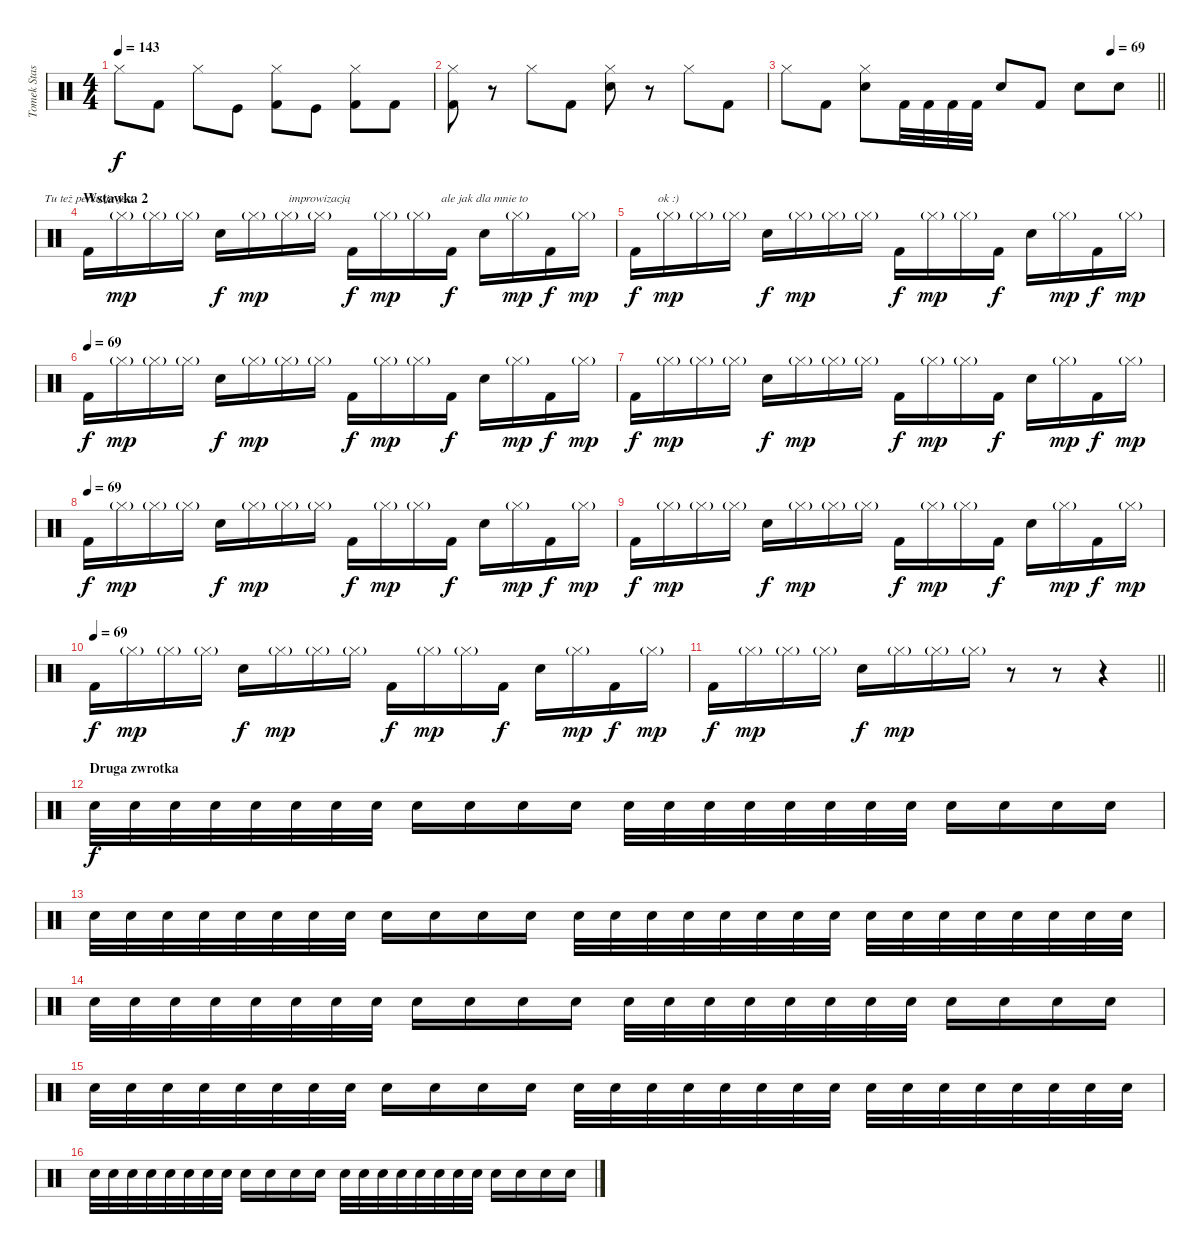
\track ("Tomek Stasiak" "Tomek Stas") {instrument percussion}
\staff {score}
\articulation defaults
\chord ("Tu też perkusja jest") {firstfret 20}
\chord ("improwizacją") {firstfret 20}
\chord ("ale jak dla mnie to ") {firstfret 20}
\chord ("ok :)") {firstfret 20}
\ts (4 4)
\tempo 143
\clef neutral
\ks c "Hi-Hat (closed)".8{dy f} "Kick (hit) 2".8 "Hi-Hat (closed)".8 "Kick (hit)".8
("Hi-Hat (closed)" "Kick (hit) 2").8 "Kick (hit)".8 ("Hi-Hat (closed)" "Kick (hit) 2").8 "Kick (hit) 2".8 |
("Hi-Hat (closed)" "Kick (hit) 2").8 r.8 "Hi-Hat (closed)".8 "Kick (hit) 2".8 ("Hi-Hat (closed)" "Snare (hit) 2").8 r.8 "Hi-Hat (closed)".8 "Kick (hit) 2".8 |
\tempo (69 0.875)
\barLineRight lightlight "Hi-Hat (closed)".8 "Kick (hit) 2".8
("Hi-Hat (closed)" "Snare (hit) 2").8 "Kick (hit) 2".32 "Kick (hit) 2".32 "Kick (hit) 2".32 "Kick (hit) 2".32 "Snare (hit) 2".8 "Kick (hit) 2".8 "Snare (hit) 2".8 "Snare (hit) 2".8 |
\section ("" "Wstawka 2")
"Kick (hit) 2".16{ch "Tu też perkusja jest"} "Hi-Hat (closed)"{g}.16{dy mp} "Hi-Hat (closed)"{g}.16 "Hi-Hat (closed)"{g}.16 "Snare (hit) 2".16{dy f} "Hi-Hat (closed)"{g}.16{dy mp} "Hi-Hat (closed)"{g}.16 "Hi-Hat (closed)"{g}.16{ch "improwizacją"} "Kick (hit) 2".16{dy f} "Hi-Hat (closed)"{g}.16{dy mp} "Hi-Hat (closed)"{g}.16 "Kick (hit) 2".16{dy f} "Snare (hit) 2".16{ch "ale jak dla mnie to "} "Hi-Hat (closed)"{g}.16{dy mp} "Kick (hit) 2".16{dy f} "Hi-Hat (closed)"{g}.16{dy mp} |
"Kick (hit) 2".16{dy f} "Hi-Hat (closed)"{g}.16{ch "ok :)" dy mp} "Hi-Hat (closed)"{g}.16 "Hi-Hat (closed)"{g}.16 "Snare (hit) 2".16{dy f} "Hi-Hat (closed)"{g}.16{dy mp} "Hi-Hat (closed)"{g}.16 "Hi-Hat (closed)"{g}.16 "Kick (hit) 2".16{dy f} "Hi-Hat (closed)"{g}.16{dy mp} "Hi-Hat (closed)"{g}.16 "Kick (hit) 2".16{dy f} "Snare (hit) 2".16 "Hi-Hat (closed)"{g}.16{dy mp} "Kick (hit) 2".16{dy f} "Hi-Hat (closed)"{g}.16{dy mp} |
\tempo (69)
"Kick (hit) 2".16{dy f} "Hi-Hat (closed)"{g}.16{dy mp} "Hi-Hat (closed)"{g}.16 "Hi-Hat (closed)"{g}.16 "Snare (hit) 2".16{dy f} "Hi-Hat (closed)"{g}.16{dy mp} "Hi-Hat (closed)"{g}.16 "Hi-Hat (closed)"{g}.16 "Kick (hit) 2".16{dy f} "Hi-Hat (closed)"{g}.16{dy mp} "Hi-Hat (closed)"{g}.16 "Kick (hit) 2".16{dy f} "Snare (hit) 2".16 "Hi-Hat (closed)"{g}.16{dy mp} "Kick (hit) 2".16{dy f} "Hi-Hat (closed)"{g}.16{dy mp} |
"Kick (hit) 2".16{dy f} "Hi-Hat (closed)"{g}.16{dy mp} "Hi-Hat (closed)"{g}.16 "Hi-Hat (closed)"{g}.16 "Snare (hit) 2".16{dy f} "Hi-Hat (closed)"{g}.16{dy mp} "Hi-Hat (closed)"{g}.16 "Hi-Hat (closed)"{g}.16 "Kick (hit) 2".16{dy f} "Hi-Hat (closed)"{g}.16{dy mp} "Hi-Hat (closed)"{g}.16 "Kick (hit) 2".16{dy f} "Snare (hit) 2".16 "Hi-Hat (closed)"{g}.16{dy mp} "Kick (hit) 2".16{dy f} "Hi-Hat (closed)"{g}.16{dy mp} |
\tempo (69)
"Kick (hit) 2".16{dy f} "Hi-Hat (closed)"{g}.16{dy mp} "Hi-Hat (closed)"{g}.16 "Hi-Hat (closed)"{g}.16 "Snare (hit) 2".16{dy f} "Hi-Hat (closed)"{g}.16{dy mp} "Hi-Hat (closed)"{g}.16 "Hi-Hat (closed)"{g}.16 "Kick (hit) 2".16{dy f} "Hi-Hat (closed)"{g}.16{dy mp} "Hi-Hat (closed)"{g}.16 "Kick (hit) 2".16{dy f} "Snare (hit) 2".16 "Hi-Hat (closed)"{g}.16{dy mp} "Kick (hit) 2".16{dy f} "Hi-Hat (closed)"{g}.16{dy mp} |
"Kick (hit) 2".16{dy f} "Hi-Hat (closed)"{g}.16{dy mp} "Hi-Hat (closed)"{g}.16 "Hi-Hat (closed)"{g}.16 "Snare (hit) 2".16{dy f} "Hi-Hat (closed)"{g}.16{dy mp} "Hi-Hat (closed)"{g}.16 "Hi-Hat (closed)"{g}.16 "Kick (hit) 2".16{dy f} "Hi-Hat (closed)"{g}.16{dy mp} "Hi-Hat (closed)"{g}.16 "Kick (hit) 2".16{dy f} "Snare (hit) 2".16 "Hi-Hat (closed)"{g}.16{dy mp} "Kick (hit) 2".16{dy f} "Hi-Hat (closed)"{g}.16{dy mp} |
\tempo (69)
"Kick (hit) 2".16{dy f} "Hi-Hat (closed)"{g}.16{dy mp} "Hi-Hat (closed)"{g}.16 "Hi-Hat (closed)"{g}.16 "Snare (hit) 2".16{dy f} "Hi-Hat (closed)"{g}.16{dy mp} "Hi-Hat (closed)"{g}.16 "Hi-Hat (closed)"{g}.16 "Kick (hit) 2".16{dy f} "Hi-Hat (closed)"{g}.16{dy mp} "Hi-Hat (closed)"{g}.16 "Kick (hit) 2".16{dy f} "Snare (hit) 2".16 "Hi-Hat (closed)"{g}.16{dy mp} "Kick (hit) 2".16{dy f} "Hi-Hat (closed)"{g}.16{dy mp} |
\barLineRight lightlight "Kick (hit) 2".16{dy f} "Hi-Hat (closed)"{g}.16{dy mp} "Hi-Hat (closed)"{g}.16 "Hi-Hat (closed)"{g}.16 "Snare (hit) 2".16{dy f} "Hi-Hat (closed)"{g}.16{dy mp} "Hi-Hat (closed)"{g}.16 "Hi-Hat (closed)"{g}.16
r.8 r.8 r.4 |
\section ("" "Druga zwrotka")
"Snare (hit) 2".32{dy f volume 10} "Snare (hit) 2".32{volume 7} "Snare (hit) 2".32 "Snare (hit) 2".32 "Snare (hit) 2".32 "Snare (hit) 2".32 "Snare (hit) 2".32 "Snare (hit) 2".32 "Snare (hit) 2".16 "Snare (hit) 2".16 "Snare (hit) 2".16 "Snare (hit) 2".16 "Snare (hit) 2".32{volume 10} "Snare (hit) 2".32{volume 7} "Snare (hit) 2".32 "Snare (hit) 2".32 "Snare (hit) 2".32 "Snare (hit) 2".32 "Snare (hit) 2".32 "Snare (hit) 2".32 "Snare (hit) 2".16 "Snare (hit) 2".16 "Snare (hit) 2".16 "Snare (hit) 2".16 |
"Snare (hit) 2".32{volume 10} "Snare (hit) 2".32{volume 7} "Snare (hit) 2".32 "Snare (hit) 2".32 "Snare (hit) 2".32 "Snare (hit) 2".32 "Snare (hit) 2".32 "Snare (hit) 2".32 "Snare (hit) 2".16 "Snare (hit) 2".16 "Snare (hit) 2".16 "Snare (hit) 2".16 "Snare (hit) 2".32{volume 10} "Snare (hit) 2".32{volume 7} "Snare (hit) 2".32 "Snare (hit) 2".32 "Snare (hit) 2".32 "Snare (hit) 2".32 "Snare (hit) 2".32 "Snare (hit) 2".32 "Snare (hit) 2".32{volume 10} "Snare (hit) 2".32{volume 7} "Snare (hit) 2".32 "Snare (hit) 2".32 "Snare (hit) 2".32 "Snare (hit) 2".32 "Snare (hit) 2".32 "Snare (hit) 2".32 |
"Snare (hit) 2".32{volume 10} "Snare (hit) 2".32{volume 7} "Snare (hit) 2".32 "Snare (hit) 2".32 "Snare (hit) 2".32 "Snare (hit) 2".32 "Snare (hit) 2".32 "Snare (hit) 2".32 "Snare (hit) 2".16 "Snare (hit) 2".16 "Snare (hit) 2".16 "Snare (hit) 2".16 "Snare (hit) 2".32{volume 10} "Snare (hit) 2".32{volume 7} "Snare (hit) 2".32 "Snare (hit) 2".32 "Snare (hit) 2".32 "Snare (hit) 2".32 "Snare (hit) 2".32 "Snare (hit) 2".32 "Snare (hit) 2".16 "Snare (hit) 2".16 "Snare (hit) 2".16 "Snare (hit) 2".16 |
"Snare (hit) 2".32{volume 10} "Snare (hit) 2".32{volume 7} "Snare (hit) 2".32 "Snare (hit) 2".32 "Snare (hit) 2".32 "Snare (hit) 2".32 "Snare (hit) 2".32 "Snare (hit) 2".32 "Snare (hit) 2".16 "Snare (hit) 2".16 "Snare (hit) 2".16 "Snare (hit) 2".16 "Snare (hit) 2".32{volume 10} "Snare (hit) 2".32{volume 7} "Snare (hit) 2".32 "Snare (hit) 2".32 "Snare (hit) 2".32 "Snare (hit) 2".32 "Snare (hit) 2".32 "Snare (hit) 2".32 "Snare (hit) 2".32{volume 10} "Snare (hit) 2".32{volume 7} "Snare (hit) 2".32 "Snare (hit) 2".32 "Snare (hit) 2".32 "Snare (hit) 2".32 "Snare (hit) 2".32 "Snare (hit) 2".32 |
"Snare (hit) 2".32{volume 10} "Snare (hit) 2".32{volume 7} "Snare (hit) 2".32 "Snare (hit) 2".32 "Snare (hit) 2".32 "Snare (hit) 2".32 "Snare (hit) 2".32 "Snare (hit) 2".32 "Snare (hit) 2".16 "Snare (hit) 2".16 "Snare (hit) 2".16 "Snare (hit) 2".16 "Snare (hit) 2".32{volume 10} "Snare (hit) 2".32{volume 7} "Snare (hit) 2".32 "Snare (hit) 2".32 "Snare (hit) 2".32 "Snare (hit) 2".32 "Snare (hit) 2".32 "Snare (hit) 2".32 "Snare (hit) 2".16 "Snare (hit) 2".16 "Snare (hit) 2".16 "Snare (hit) 2".16
